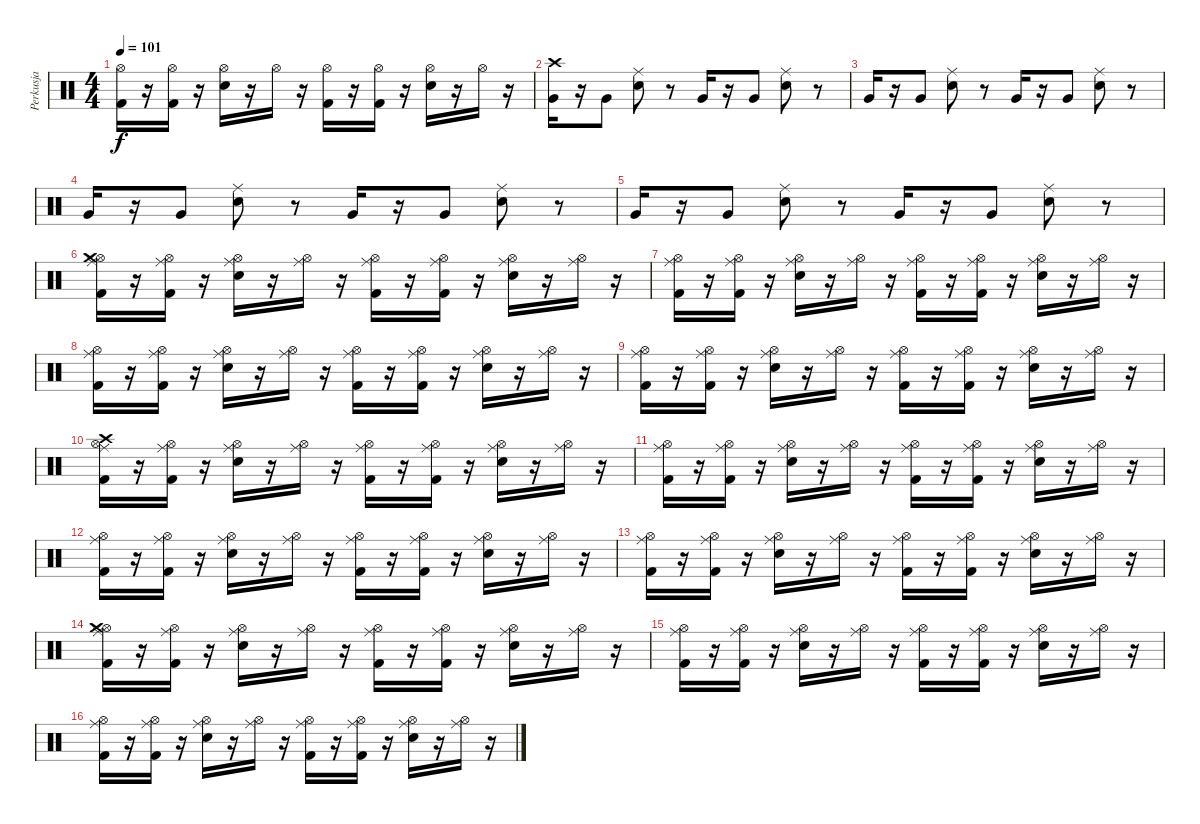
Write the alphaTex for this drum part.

\track ("Perkusja" "Perkusja") {instrument percussion}
\staff {score}
\articulation defaults
\ts (4 4)
\tempo 101
\clef neutral
\ks c
("Hi-Hat (open)" "Kick (hit) 2").16{dy f} r.16 ("Hi-Hat (open)" "Kick (hit) 2").16 r.16 ("Snare (hit) 2" "Hi-Hat (open)").16 r.16 "Hi-Hat (open)".16 r.16 ("Hi-Hat (open)" "Kick (hit) 2").16 r.16 ("Hi-Hat (open)" "Kick (hit) 2").16 r.16 ("Hi-Hat (open)" "Snare (hit) 2").16 r.16 "Hi-Hat (open)".16 r.16 |
("Very Low Tom (hit)" "Crash high (hit)").16 r.16 "Very Low Tom (hit)".8 ("Ride (middle)" "Snare (hit) 2").8 r.8 "Very Low Tom (hit)".16 r.16 "Very Low Tom (hit)".8 ("Snare (hit) 2" "Ride (middle)").8 r.8 |
"Very Low Tom (hit)".16 r.16 "Very Low Tom (hit)".8 ("Snare (hit) 2" "Ride (middle)").8 r.8 "Very Low Tom (hit)".16 r.16 "Very Low Tom (hit)".8 ("Ride (middle)" "Snare (hit) 2").8 r.8 |
"Very Low Tom (hit)".16 r.16 "Very Low Tom (hit)".8 ("Ride (middle)" "Snare (hit) 2").8 r.8 "Very Low Tom (hit)".16 r.16 "Very Low Tom (hit)".8 ("Snare (hit) 2" "Ride (middle)").8 r.8 |
"Very Low Tom (hit)".16 r.16 "Very Low Tom (hit)".8 ("Snare (hit) 2" "Ride (middle)").8 r.8 "Very Low Tom (hit)".16 r.16 "Very Low Tom (hit)".8 ("Snare (hit) 2" "Ride (middle)").8 r.8 |
("Hi-Hat (open)" "Crash medium (hit)" "Ride (middle)" "Kick (hit) 2").16 r.16 ("Kick (hit) 2" "Hi-Hat (open)" "Ride (middle)").16 r.16 ("Hi-Hat (open)" "Snare (hit) 2" "Ride (middle)").16 r.16 ("Hi-Hat (open)" "Ride (middle)").16 r.16 ("Kick (hit) 2" "Ride (middle)" "Hi-Hat (open)").16 r.16 ("Kick (hit) 2" "Ride (middle)" "Hi-Hat (open)").16 r.16 ("Hi-Hat (open)" "Ride (middle)" "Snare (hit) 2").16 r.16 ("Ride (middle)" "Hi-Hat (open)").16 r.16 |
("Ride (middle)" "Kick (hit) 2" "Hi-Hat (open)").16 r.16 ("Kick (hit) 2" "Ride (middle)" "Hi-Hat (open)").16 r.16 ("Ride (middle)" "Hi-Hat (open)" "Snare (hit) 2").16 r.16 ("Hi-Hat (open)" "Ride (middle)").16 r.16 ("Ride (middle)" "Kick (hit) 2" "Hi-Hat (open)").16 r.16 ("Kick (hit) 2" "Hi-Hat (open)" "Ride (middle)").16 r.16 ("Hi-Hat (open)" "Ride (middle)" "Snare (hit) 2").16 r.16 ("Hi-Hat (open)" "Ride (middle)").16 r.16 |
("Hi-Hat (open)" "Ride (middle)" "Kick (hit) 2").16 r.16 ("Kick (hit) 2" "Hi-Hat (open)" "Ride (middle)").16 r.16 ("Snare (hit) 2" "Ride (middle)" "Hi-Hat (open)").16 r.16 ("Hi-Hat (open)" "Ride (middle)").16 r.16 ("Kick (hit) 2" "Ride (middle)" "Hi-Hat (open)").16 r.16 ("Kick (hit) 2" "Hi-Hat (open)" "Ride (middle)").16 r.16 ("Hi-Hat (open)" "Ride (middle)" "Snare (hit) 2").16 r.16 ("Ride (middle)" "Hi-Hat (open)").16 r.16 |
("Kick (hit) 2" "Hi-Hat (open)" "Ride (middle)").16 r.16 ("Hi-Hat (open)" "Ride (middle)" "Kick (hit) 2").16 r.16 ("Snare (hit) 2" "Hi-Hat (open)" "Ride (middle)").16 r.16 ("Hi-Hat (open)" "Ride (middle)").16 r.16 ("Ride (middle)" "Hi-Hat (open)" "Kick (hit) 2").16 r.16 ("Hi-Hat (open)" "Ride (middle)" "Kick (hit) 2").16 r.16 ("Hi-Hat (open)" "Snare (hit) 2" "Ride (middle)").16 r.16 ("Ride (middle)" "Hi-Hat (open)").16 r.16 |
("Crash high (hit)" "Kick (hit) 2" "Ride (middle)" "Hi-Hat (open)").16 r.16 ("Kick (hit) 2" "Ride (middle)" "Hi-Hat (open)").16 r.16 ("Ride (middle)" "Snare (hit) 2" "Hi-Hat (open)").16 r.16 ("Ride (middle)" "Hi-Hat (open)").16 r.16 ("Ride (middle)" "Hi-Hat (open)" "Kick (hit) 2").16 r.16 ("Ride (middle)" "Hi-Hat (open)" "Kick (hit) 2").16 r.16 ("Ride (middle)" "Snare (hit) 2" "Hi-Hat (open)").16 r.16 ("Hi-Hat (open)" "Ride (middle)").16 r.16 |
("Ride (middle)" "Kick (hit) 2" "Hi-Hat (open)").16 r.16 ("Kick (hit) 2" "Hi-Hat (open)" "Ride (middle)").16 r.16 ("Ride (middle)" "Hi-Hat (open)" "Snare (hit) 2").16 r.16 ("Ride (middle)" "Hi-Hat (open)").16 r.16 ("Kick (hit) 2" "Ride (middle)" "Hi-Hat (open)").16 r.16 ("Kick (hit) 2" "Hi-Hat (open)" "Ride (middle)").16 r.16 ("Hi-Hat (open)" "Snare (hit) 2" "Ride (middle)").16 r.16 ("Ride (middle)" "Hi-Hat (open)").16 r.16 |
("Kick (hit) 2" "Hi-Hat (open)" "Ride (middle)").16 r.16 ("Ride (middle)" "Kick (hit) 2" "Hi-Hat (open)").16 r.16 ("Ride (middle)" "Hi-Hat (open)" "Snare (hit) 2").16 r.16 ("Hi-Hat (open)" "Ride (middle)").16 r.16 ("Hi-Hat (open)" "Ride (middle)" "Kick (hit) 2").16 r.16 ("Ride (middle)" "Hi-Hat (open)" "Kick (hit) 2").16 r.16 ("Snare (hit) 2" "Hi-Hat (open)" "Ride (middle)").16 r.16 ("Hi-Hat (open)" "Ride (middle)").16 r.16 |
("Hi-Hat (open)" "Ride (middle)" "Kick (hit) 2").16 r.16 ("Hi-Hat (open)" "Kick (hit) 2" "Ride (middle)").16 r.16 ("Snare (hit) 2" "Ride (middle)" "Hi-Hat (open)").16 r.16 ("Ride (middle)" "Hi-Hat (open)").16 r.16 ("Hi-Hat (open)" "Ride (middle)" "Kick (hit) 2").16 r.16 ("Hi-Hat (open)" "Ride (middle)" "Kick (hit) 2").16 r.16 ("Snare (hit) 2" "Ride (middle)" "Hi-Hat (open)").16 r.16 ("Ride (middle)" "Hi-Hat (open)").16 r.16 |
("Hi-Hat (open)" "Kick (hit) 2" "Crash medium (hit)" "Ride (middle)").16 r.16 ("Ride (middle)" "Kick (hit) 2" "Hi-Hat (open)").16 r.16 ("Snare (hit) 2" "Ride (middle)" "Hi-Hat (open)").16 r.16 ("Ride (middle)" "Hi-Hat (open)").16 r.16 ("Ride (middle)" "Hi-Hat (open)" "Kick (hit) 2").16 r.16 ("Kick (hit) 2" "Hi-Hat (open)" "Ride (middle)").16 r.16 ("Snare (hit) 2" "Ride (middle)" "Hi-Hat (open)").16 r.16 ("Ride (middle)" "Hi-Hat (open)").16 r.16 |
("Ride (middle)" "Kick (hit) 2" "Hi-Hat (open)").16 r.16 ("Kick (hit) 2" "Hi-Hat (open)" "Ride (middle)").16 r.16 ("Hi-Hat (open)" "Ride (middle)" "Snare (hit) 2").16 r.16 ("Ride (middle)" "Hi-Hat (open)").16 r.16 ("Hi-Hat (open)" "Ride (middle)" "Kick (hit) 2").16 r.16 ("Ride (middle)" "Hi-Hat (open)" "Kick (hit) 2").16 r.16 ("Ride (middle)" "Hi-Hat (open)" "Snare (hit) 2").16 r.16 ("Hi-Hat (open)" "Ride (middle)").16 r.16 |
("Ride (middle)" "Hi-Hat (open)" "Kick (hit) 2").16 r.16 ("Ride (middle)" "Hi-Hat (open)" "Kick (hit) 2").16 r.16 ("Ride (middle)" "Hi-Hat (open)" "Snare (hit) 2").16 r.16 ("Hi-Hat (open)" "Ride (middle)").16 r.16 ("Kick (hit) 2" "Hi-Hat (open)" "Ride (middle)").16 r.16 ("Hi-Hat (open)" "Ride (middle)" "Kick (hit) 2").16 r.16 ("Ride (middle)" "Hi-Hat (open)" "Snare (hit) 2").16 r.16 ("Hi-Hat (open)" "Ride (middle)").16 r.16
